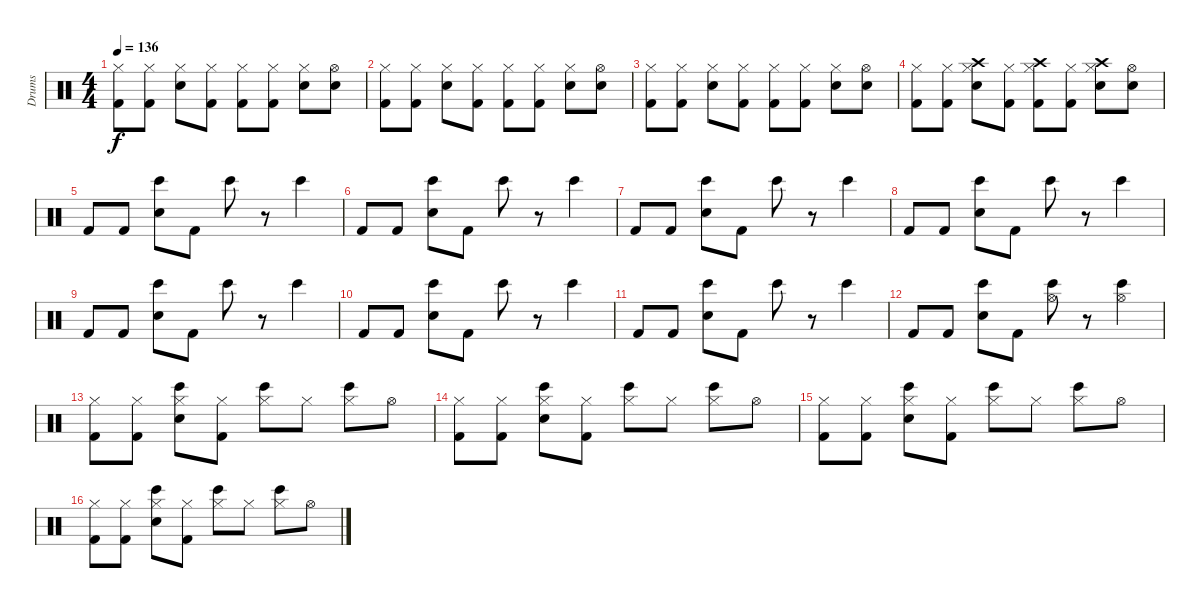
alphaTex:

\track ("Drums" "Drums") {instrument percussion}
\staff {score}
\articulation defaults
\ts (4 4)
\tempo 136
\clef neutral
\ks c
("Hi-Hat (closed)" "Kick (hit) 2").8{dy f} ("Hi-Hat (closed)" "Kick (hit) 2").8 ("Hi-Hat (closed)" "Electric Snare (hit)").8 ("Hi-Hat (closed)" "Kick (hit) 2").8 ("Hi-Hat (closed)" "Kick (hit) 2").8 ("Hi-Hat (closed)" "Kick (hit) 2").8 ("Hi-Hat (closed)" "Electric Snare (hit)").8 ("Hi-Hat (open)" "Electric Snare (hit)").8 |
("Hi-Hat (closed)" "Kick (hit) 2").8 ("Hi-Hat (closed)" "Kick (hit) 2").8 ("Hi-Hat (closed)" "Electric Snare (hit)").8 ("Hi-Hat (closed)" "Kick (hit) 2").8 ("Hi-Hat (closed)" "Kick (hit) 2").8 ("Hi-Hat (closed)" "Kick (hit) 2").8 ("Hi-Hat (closed)" "Electric Snare (hit)").8 ("Hi-Hat (open)" "Electric Snare (hit)").8 |
("Hi-Hat (closed)" "Kick (hit) 2").8 ("Hi-Hat (closed)" "Kick (hit) 2").8 ("Hi-Hat (closed)" "Electric Snare (hit)").8 ("Hi-Hat (closed)" "Kick (hit) 2").8 ("Hi-Hat (closed)" "Kick (hit) 2").8 ("Hi-Hat (closed)" "Kick (hit) 2").8 ("Hi-Hat (closed)" "Electric Snare (hit)").8 ("Hi-Hat (open)" "Electric Snare (hit)").8 |
("Hi-Hat (closed)" "Kick (hit) 2").8 ("Hi-Hat (closed)" "Kick (hit) 2").8 ("Crash high (hit)" "Hi-Hat (closed)" "Electric Snare (hit)").8 ("Hi-Hat (closed)" "Kick (hit) 2").8 ("Crash high (hit)" "Hi-Hat (closed)" "Kick (hit) 2").8 ("Hi-Hat (closed)" "Kick (hit) 2").8 ("Crash high (hit)" "Hi-Hat (closed)" "Electric Snare (hit)").8 ("Hi-Hat (open)" "Electric Snare (hit)").8 |
"Kick (hit) 2".8 "Kick (hit) 2".8 ("Bongo High (hit)" "Electric Snare (hit)").8 "Kick (hit) 2".8 "Bongo High (hit)".8 r.8 "Bongo High (hit)".4 |
"Kick (hit) 2".8 "Kick (hit) 2".8 ("Bongo High (hit)" "Electric Snare (hit)").8 "Kick (hit) 2".8 "Bongo High (hit)".8 r.8 "Bongo High (hit)".4 |
"Kick (hit) 2".8 "Kick (hit) 2".8 ("Bongo High (hit)" "Electric Snare (hit)").8 "Kick (hit) 2".8 "Bongo High (hit)".8 r.8 "Bongo High (hit)".4 |
"Kick (hit) 2".8 "Kick (hit) 2".8 ("Bongo High (hit)" "Electric Snare (hit)").8 "Kick (hit) 2".8 "Bongo High (hit)".8 r.8 "Bongo High (hit)".4 |
"Kick (hit) 2".8 "Kick (hit) 2".8 ("Bongo High (hit)" "Electric Snare (hit)").8 "Kick (hit) 2".8 "Bongo High (hit)".8 r.8 "Bongo High (hit)".4 |
"Kick (hit) 2".8 "Kick (hit) 2".8 ("Bongo High (hit)" "Electric Snare (hit)").8 "Kick (hit) 2".8 "Bongo High (hit)".8 r.8 "Bongo High (hit)".4 |
"Kick (hit) 2".8 "Kick (hit) 2".8 ("Bongo High (hit)" "Electric Snare (hit)").8 "Kick (hit) 2".8 "Bongo High (hit)".8 r.8 "Bongo High (hit)".4 |
"Kick (hit) 2".8 "Kick (hit) 2".8 ("Bongo High (hit)" "Electric Snare (hit)").8 "Kick (hit) 2".8 ("Hi-Hat (open)" "Bongo High (hit)").8 r.8 ("Hi-Hat (open)" "Bongo High (hit)").4 |
("Hi-Hat (closed)" "Kick (hit) 2").8 ("Hi-Hat (closed)" "Kick (hit) 2").8 ("Hi-Hat (closed)" "Bongo High (hit)" "Electric Snare (hit)").8 ("Hi-Hat (closed)" "Kick (hit) 2").8 ("Hi-Hat (closed)" "Bongo High (hit)").8 "Hi-Hat (closed)".8 ("Hi-Hat (closed)" "Bongo High (hit)").8 "Hi-Hat (open)".8 |
("Hi-Hat (closed)" "Kick (hit) 2").8 ("Hi-Hat (closed)" "Kick (hit) 2").8 ("Hi-Hat (closed)" "Bongo High (hit)" "Electric Snare (hit)").8 ("Hi-Hat (closed)" "Kick (hit) 2").8 ("Hi-Hat (closed)" "Bongo High (hit)").8 "Hi-Hat (closed)".8 ("Hi-Hat (closed)" "Bongo High (hit)").8 "Hi-Hat (open)".8 |
("Hi-Hat (closed)" "Kick (hit) 2").8 ("Hi-Hat (closed)" "Kick (hit) 2").8 ("Hi-Hat (closed)" "Bongo High (hit)" "Electric Snare (hit)").8 ("Hi-Hat (closed)" "Kick (hit) 2").8 ("Hi-Hat (closed)" "Bongo High (hit)").8 "Hi-Hat (closed)".8 ("Hi-Hat (closed)" "Bongo High (hit)").8 "Hi-Hat (open)".8 |
("Hi-Hat (closed)" "Kick (hit) 2").8 ("Hi-Hat (closed)" "Kick (hit) 2").8 ("Hi-Hat (closed)" "Bongo High (hit)" "Electric Snare (hit)").8 ("Hi-Hat (closed)" "Kick (hit) 2").8 ("Hi-Hat (closed)" "Bongo High (hit)").8 "Hi-Hat (closed)".8 ("Hi-Hat (closed)" "Bongo High (hit)").8 "Hi-Hat (open)".8
